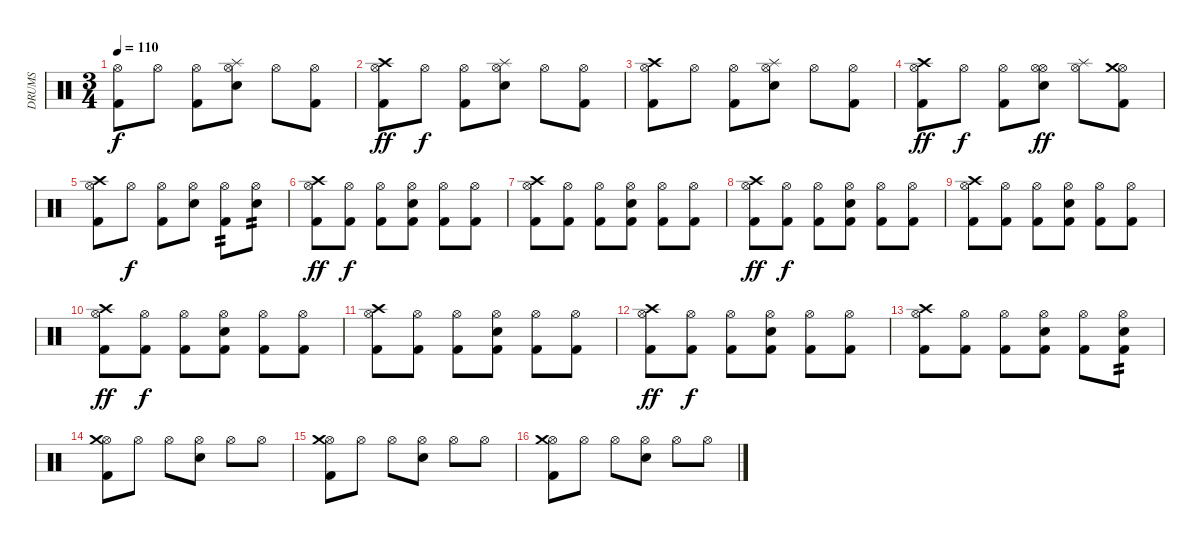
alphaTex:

\track ("DRUMS" "DRUMS") {instrument percussion}
\staff {score}
\articulation defaults
\ts (3 4)
\tempo 110
\clef neutral
\ks c
("Kick (hit) 2" "Hi-Hat (open)").8{dy f} "Hi-Hat (open)".8 ("Kick (hit) 2" "Hi-Hat (open)").8 ("Electric Snare (hit)" "Hi-Hat (open)" "Splash (hit)").8 "Hi-Hat (open)".8 ("Kick (hit) 2" "Hi-Hat (open)").8 |
("Kick (hit) 2" "Hi-Hat (open)" "Crash high (hit)").8{dy ff} "Hi-Hat (open)".8{dy f} ("Kick (hit) 2" "Hi-Hat (open)").8 ("Electric Snare (hit)" "Hi-Hat (open)" "Splash (hit)").8 "Hi-Hat (open)".8 ("Kick (hit) 2" "Hi-Hat (open)").8 |
("Kick (hit) 2" "Hi-Hat (open)" "Crash high (hit)").8 "Hi-Hat (open)".8 ("Kick (hit) 2" "Hi-Hat (open)").8 ("Electric Snare (hit)" "Hi-Hat (open)" "Splash (hit)").8 "Hi-Hat (open)".8 ("Kick (hit) 2" "Hi-Hat (open)").8 |
("Kick (hit) 2" "Hi-Hat (open)" "Crash high (hit)").8{dy ff} "Hi-Hat (open)".8{dy f} ("Kick (hit) 2" "Hi-Hat (open)").8 ("Electric Snare (hit)" "Hi-Hat (open)" "Hi-Hat (open)").8{dy ff} ("Hi-Hat (open)" "Splash (hit)").8 ("Kick (hit) 2" "Hi-Hat (open)" "Crash medium (hit)").8 |
("Kick (hit) 2" "Hi-Hat (open)" "Crash high (hit)").8 "Hi-Hat (open)".8{dy f} ("Kick (hit) 2" "Hi-Hat (open)").8 ("Electric Snare (hit)" "Hi-Hat (open)").8 ("Kick (hit) 2" "Hi-Hat (open)").8{tp 2} ("Electric Snare (hit)" "Hi-Hat (open)").8{tp 2} |
("Kick (hit) 2" "Hi-Hat (open)" "Crash high (hit)").8{dy ff} ("Kick (hit) 2" "Hi-Hat (open)").8{dy f} ("Kick (hit) 2" "Hi-Hat (open)").8 ("Kick (hit) 2" "Hi-Hat (open)" "Electric Snare (hit)").8 ("Kick (hit) 2" "Hi-Hat (open)").8 ("Kick (hit) 2" "Hi-Hat (open)").8 |
("Kick (hit) 2" "Hi-Hat (open)" "Crash high (hit)").8 ("Kick (hit) 2" "Hi-Hat (open)").8 ("Kick (hit) 2" "Hi-Hat (open)").8 ("Kick (hit) 2" "Hi-Hat (open)" "Electric Snare (hit)").8 ("Kick (hit) 2" "Hi-Hat (open)").8 ("Kick (hit) 2" "Hi-Hat (open)").8 |
("Kick (hit) 2" "Hi-Hat (open)" "Crash high (hit)").8{dy ff} ("Kick (hit) 2" "Hi-Hat (open)").8{dy f} ("Kick (hit) 2" "Hi-Hat (open)").8 ("Kick (hit) 2" "Hi-Hat (open)" "Electric Snare (hit)").8 ("Kick (hit) 2" "Hi-Hat (open)").8 ("Kick (hit) 2" "Hi-Hat (open)").8 |
("Kick (hit) 2" "Hi-Hat (open)" "Crash high (hit)").8 ("Kick (hit) 2" "Hi-Hat (open)").8 ("Kick (hit) 2" "Hi-Hat (open)").8 ("Kick (hit) 2" "Hi-Hat (open)" "Electric Snare (hit)").8 ("Kick (hit) 2" "Hi-Hat (open)").8 ("Kick (hit) 2" "Hi-Hat (open)").8 |
("Kick (hit) 2" "Hi-Hat (open)" "Crash high (hit)").8{dy ff} ("Kick (hit) 2" "Hi-Hat (open)").8{dy f} ("Kick (hit) 2" "Hi-Hat (open)").8 ("Kick (hit) 2" "Hi-Hat (open)" "Electric Snare (hit)").8 ("Kick (hit) 2" "Hi-Hat (open)").8 ("Kick (hit) 2" "Hi-Hat (open)").8 |
("Kick (hit) 2" "Hi-Hat (open)" "Crash high (hit)").8 ("Kick (hit) 2" "Hi-Hat (open)").8 ("Kick (hit) 2" "Hi-Hat (open)").8 ("Kick (hit) 2" "Hi-Hat (open)" "Electric Snare (hit)").8 ("Kick (hit) 2" "Hi-Hat (open)").8 ("Kick (hit) 2" "Hi-Hat (open)").8 |
("Kick (hit) 2" "Hi-Hat (open)" "Crash high (hit)").8{dy ff} ("Kick (hit) 2" "Hi-Hat (open)").8{dy f} ("Kick (hit) 2" "Hi-Hat (open)").8 ("Kick (hit) 2" "Hi-Hat (open)" "Electric Snare (hit)").8 ("Kick (hit) 2" "Hi-Hat (open)").8 ("Kick (hit) 2" "Hi-Hat (open)").8 |
("Kick (hit) 2" "Hi-Hat (open)" "Crash high (hit)").8 ("Kick (hit) 2" "Hi-Hat (open)").8 ("Kick (hit) 2" "Hi-Hat (open)").8 ("Kick (hit) 2" "Hi-Hat (open)" "Electric Snare (hit)").8 ("Kick (hit) 2" "Hi-Hat (open)").8 ("Kick (hit) 2" "Hi-Hat (open)" "Electric Snare (hit)").8{tp 2} |
("Kick (hit) 2" "Hi-Hat (open)" "Crash medium (hit)").8 "Hi-Hat (open)".8 "Hi-Hat (open)".8 ("Electric Snare (hit)" "Hi-Hat (open)").8 "Hi-Hat (open)".8 "Hi-Hat (open)".8 |
("Kick (hit) 2" "Hi-Hat (open)" "Crash medium (hit)").8 "Hi-Hat (open)".8 "Hi-Hat (open)".8 ("Electric Snare (hit)" "Hi-Hat (open)").8 "Hi-Hat (open)".8 "Hi-Hat (open)".8 |
("Kick (hit) 2" "Hi-Hat (open)" "Crash medium (hit)").8 "Hi-Hat (open)".8 "Hi-Hat (open)".8 ("Electric Snare (hit)" "Hi-Hat (open)").8 "Hi-Hat (open)".8 "Hi-Hat (open)".8
